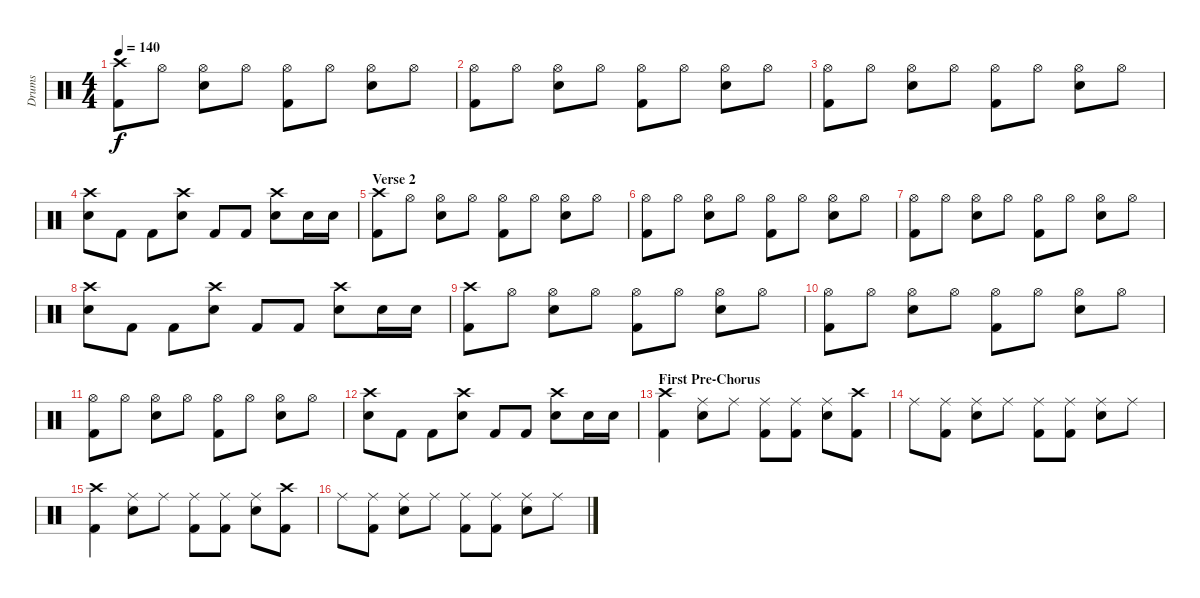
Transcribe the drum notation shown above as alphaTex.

\track ("Drums" "Drums") {instrument percussion}
\staff {score}
\articulation defaults
\ts (4 4)
\tempo 140
\clef neutral
\ks c
("Crash high (hit)" "Kick (hit) 2").8{dy f} "Hi-Hat (open)".8 ("Hi-Hat (open)" "Electric Snare (hit)").8 "Hi-Hat (open)".8 ("Hi-Hat (open)" "Kick (hit) 2").8 "Hi-Hat (open)".8 ("Hi-Hat (open)" "Electric Snare (hit)").8 "Hi-Hat (open)".8 |
("Hi-Hat (open)" "Kick (hit) 2").8 "Hi-Hat (open)".8 ("Hi-Hat (open)" "Electric Snare (hit)").8 "Hi-Hat (open)".8 ("Hi-Hat (open)" "Kick (hit) 2").8 "Hi-Hat (open)".8 ("Hi-Hat (open)" "Electric Snare (hit)").8 "Hi-Hat (open)".8 |
("Hi-Hat (open)" "Kick (hit) 2").8 "Hi-Hat (open)".8 ("Hi-Hat (open)" "Electric Snare (hit)").8 "Hi-Hat (open)".8 ("Hi-Hat (open)" "Kick (hit) 2").8 "Hi-Hat (open)".8 ("Hi-Hat (open)" "Electric Snare (hit)").8 "Hi-Hat (open)".8 |
("Crash high (hit)" "Electric Snare (hit)").8 "Kick (hit) 2".8 "Kick (hit) 2".8 ("Crash high (hit)" "Electric Snare (hit)").8 "Kick (hit) 2".8 "Kick (hit) 2".8 ("Crash high (hit)" "Electric Snare (hit)").8 "Electric Snare (hit)".16 "Electric Snare (hit)".16 |
\section ("" "Verse 2")
("Crash high (hit)" "Kick (hit) 2").8 "Hi-Hat (open)".8 ("Hi-Hat (open)" "Electric Snare (hit)").8 "Hi-Hat (open)".8 ("Hi-Hat (open)" "Kick (hit) 2").8 "Hi-Hat (open)".8 ("Hi-Hat (open)" "Electric Snare (hit)").8 "Hi-Hat (open)".8 |
("Hi-Hat (open)" "Kick (hit) 2").8 "Hi-Hat (open)".8 ("Hi-Hat (open)" "Electric Snare (hit)").8 "Hi-Hat (open)".8 ("Hi-Hat (open)" "Kick (hit) 2").8 "Hi-Hat (open)".8 ("Hi-Hat (open)" "Electric Snare (hit)").8 "Hi-Hat (open)".8 |
("Hi-Hat (open)" "Kick (hit) 2").8 "Hi-Hat (open)".8 ("Hi-Hat (open)" "Electric Snare (hit)").8 "Hi-Hat (open)".8 ("Hi-Hat (open)" "Kick (hit) 2").8 "Hi-Hat (open)".8 ("Hi-Hat (open)" "Electric Snare (hit)").8 "Hi-Hat (open)".8 |
("Crash high (hit)" "Electric Snare (hit)").8 "Kick (hit) 2".8 "Kick (hit) 2".8 ("Crash high (hit)" "Electric Snare (hit)").8 "Kick (hit) 2".8 "Kick (hit) 2".8 ("Crash high (hit)" "Electric Snare (hit)").8 "Electric Snare (hit)".16 "Electric Snare (hit)".16 |
("Crash high (hit)" "Kick (hit) 2").8 "Hi-Hat (open)".8 ("Hi-Hat (open)" "Electric Snare (hit)").8 "Hi-Hat (open)".8 ("Hi-Hat (open)" "Kick (hit) 2").8 "Hi-Hat (open)".8 ("Hi-Hat (open)" "Electric Snare (hit)").8 "Hi-Hat (open)".8 |
("Hi-Hat (open)" "Kick (hit) 2").8 "Hi-Hat (open)".8 ("Hi-Hat (open)" "Electric Snare (hit)").8 "Hi-Hat (open)".8 ("Hi-Hat (open)" "Kick (hit) 2").8 "Hi-Hat (open)".8 ("Hi-Hat (open)" "Electric Snare (hit)").8 "Hi-Hat (open)".8 |
("Hi-Hat (open)" "Kick (hit) 2").8 "Hi-Hat (open)".8 ("Hi-Hat (open)" "Electric Snare (hit)").8 "Hi-Hat (open)".8 ("Hi-Hat (open)" "Kick (hit) 2").8 "Hi-Hat (open)".8 ("Hi-Hat (open)" "Electric Snare (hit)").8 "Hi-Hat (open)".8 |
("Crash high (hit)" "Electric Snare (hit)").8 "Kick (hit) 2".8 "Kick (hit) 2".8 ("Crash high (hit)" "Electric Snare (hit)").8 "Kick (hit) 2".8 "Kick (hit) 2".8 ("Crash high (hit)" "Electric Snare (hit)").8 "Electric Snare (hit)".16 "Electric Snare (hit)".16 |
\section ("" "First Pre-Chorus")
("Crash high (hit)" "Kick (hit) 2").4 ("Ride (middle)" "Electric Snare (hit)").8 "Ride (middle)".8 ("Ride (middle)" "Kick (hit) 2").8 ("Ride (middle)" "Kick (hit) 2").8 ("Ride (middle)" "Electric Snare (hit)").8 ("Crash high (hit)" "Kick (hit) 2").8 |
"Ride (middle)".8 ("Ride (middle)" "Kick (hit) 2").8 ("Ride (middle)" "Electric Snare (hit)").8 "Ride (middle)".8 ("Ride (middle)" "Kick (hit) 2").8 ("Ride (middle)" "Kick (hit) 2").8 ("Ride (middle)" "Electric Snare (hit)").8 "Ride (middle)".8 |
("Crash high (hit)" "Kick (hit) 2").4 ("Ride (middle)" "Electric Snare (hit)").8 "Ride (middle)".8 ("Ride (middle)" "Kick (hit) 2").8 ("Ride (middle)" "Kick (hit) 2").8 ("Ride (middle)" "Electric Snare (hit)").8 ("Crash high (hit)" "Kick (hit) 2").8 |
"Ride (middle)".8 ("Ride (middle)" "Kick (hit) 2").8 ("Ride (middle)" "Electric Snare (hit)").8 "Ride (middle)".8 ("Ride (middle)" "Kick (hit) 2").8 ("Ride (middle)" "Kick (hit) 2").8 ("Ride (middle)" "Electric Snare (hit)").8 "Ride (middle)".8
